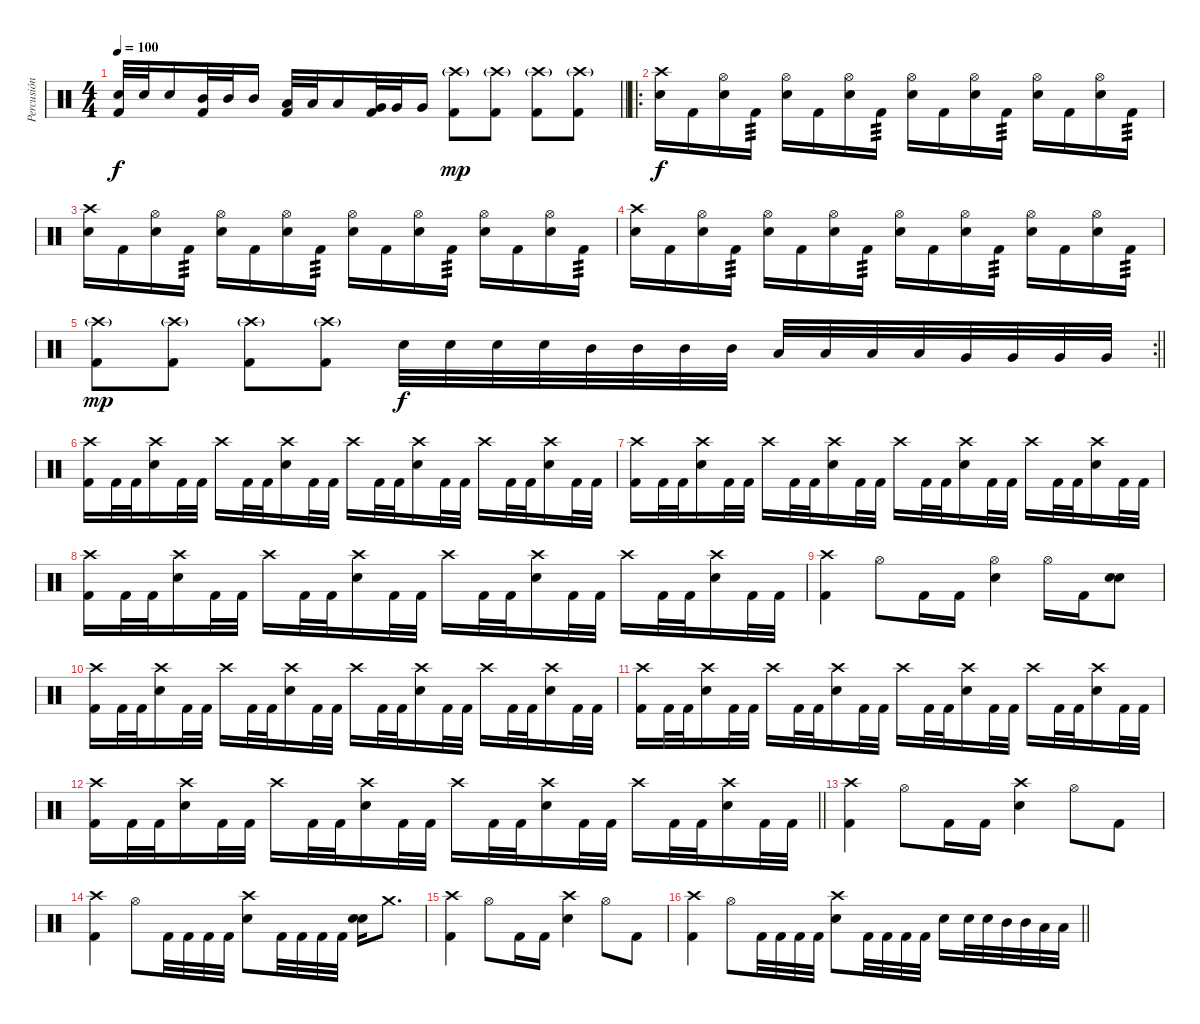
\track ("Percusión" "Percusión") {instrument percussion}
\staff
\articulation defaults
\ts (4 4)
\tempo 100
\clef neutral
\barLineRight lightlight
\ks c
("Kick (hit) 2" "Snare (hit) 2").32{dy f} "Snare (hit) 2".32 "Snare (hit) 2".16 ("Kick (hit) 2" "Mid Tom (hit)").32 "Mid Tom (hit)".32 "Mid Tom (hit)".16 ("Kick (hit) 2" "Low Tom (hit)").32 "Low Tom (hit)".32 "Low Tom (hit)".16 ("Kick (hit) 2" "Very Low Tom (hit)").32 "Very Low Tom (hit)".32 "Very Low Tom (hit)".16 ("Kick (hit) 2" "Crash high (hit)"{g}).8{dy mp} ("Kick (hit) 2" "Crash high (hit)"{g}).8 ("Kick (hit) 2" "Crash high (hit)"{g}).8 ("Kick (hit) 2" "Crash high (hit)"{g}).8 |
\ro
\section ("" "")
("Crash high (hit)" "Electric Snare (hit)").16{dy f} "Kick (hit) 2".16 ("Hi-Hat (open)" "Electric Snare (hit)").16 "Kick (hit) 2".16{tp 3} ("Hi-Hat (open)" "Electric Snare (hit)").16 "Kick (hit) 2".16 ("Hi-Hat (open)" "Electric Snare (hit)").16 "Kick (hit) 2".16{tp 3} ("Hi-Hat (open)" "Electric Snare (hit)").16 "Kick (hit) 2".16 ("Hi-Hat (open)" "Electric Snare (hit)").16 "Kick (hit) 2".16{tp 3} ("Hi-Hat (open)" "Electric Snare (hit)").16 "Kick (hit) 2".16 ("Hi-Hat (open)" "Electric Snare (hit)").16 "Kick (hit) 2".16{tp 3} |
("Crash high (hit)" "Electric Snare (hit)").16 "Kick (hit) 2".16 ("Hi-Hat (open)" "Electric Snare (hit)").16 "Kick (hit) 2".16{tp 3} ("Hi-Hat (open)" "Electric Snare (hit)").16 "Kick (hit) 2".16 ("Hi-Hat (open)" "Electric Snare (hit)").16 "Kick (hit) 2".16{tp 3} ("Hi-Hat (open)" "Electric Snare (hit)").16 "Kick (hit) 2".16 ("Hi-Hat (open)" "Electric Snare (hit)").16 "Kick (hit) 2".16{tp 3} ("Hi-Hat (open)" "Electric Snare (hit)").16 "Kick (hit) 2".16 ("Hi-Hat (open)" "Electric Snare (hit)").16 "Kick (hit) 2".16{tp 3} |
("Crash high (hit)" "Electric Snare (hit)").16 "Kick (hit) 2".16 ("Hi-Hat (open)" "Electric Snare (hit)").16 "Kick (hit) 2".16{tp 3} ("Hi-Hat (open)" "Electric Snare (hit)").16 "Kick (hit) 2".16 ("Hi-Hat (open)" "Electric Snare (hit)").16 "Kick (hit) 2".16{tp 3} ("Hi-Hat (open)" "Electric Snare (hit)").16 "Kick (hit) 2".16 ("Hi-Hat (open)" "Electric Snare (hit)").16 "Kick (hit) 2".16{tp 3} ("Hi-Hat (open)" "Electric Snare (hit)").16 "Kick (hit) 2".16 ("Hi-Hat (open)" "Electric Snare (hit)").16 "Kick (hit) 2".16{tp 3} |
\rc 2
\barLineRight lightlight
("Kick (hit) 2" "Crash high (hit)"{g}).8{dy mp} ("Kick (hit) 2" "Crash high (hit)"{g}).8 ("Kick (hit) 2" "Crash high (hit)"{g}).8 ("Kick (hit) 2" "Crash high (hit)"{g}).8 "Snare (hit) 2".32{dy f} "Snare (hit) 2".32 "Snare (hit) 2".32 "Snare (hit) 2".32 "Mid Tom (hit)".32 "Mid Tom (hit)".32 "Mid Tom (hit)".32 "Mid Tom (hit)".32 "Low Tom (hit)".32 "Low Tom (hit)".32 "Low Tom (hit)".32 "Low Tom (hit)".32 "Very Low Tom (hit)".32 "Very Low Tom (hit)".32 "Very Low Tom (hit)".32 "Very Low Tom (hit)".32 |
\section ("" "")
("Kick (hit) 2" "Crash high (hit)").16 "Kick (hit) 2".32 "Kick (hit) 2".32 ("Crash high (hit)" "Electric Snare (hit)").16 "Kick (hit) 2".32 "Kick (hit) 2".32 "Crash high (hit)".16 "Kick (hit) 2".32 "Kick (hit) 2".32 ("Crash high (hit)" "Electric Snare (hit)").16 "Kick (hit) 2".32 "Kick (hit) 2".32 "Crash high (hit)".16 "Kick (hit) 2".32 "Kick (hit) 2".32 ("Crash high (hit)" "Electric Snare (hit)").16 "Kick (hit) 2".32 "Kick (hit) 2".32 "Crash high (hit)".16 "Kick (hit) 2".32 "Kick (hit) 2".32 ("Crash high (hit)" "Electric Snare (hit)").16 "Kick (hit) 2".32 "Kick (hit) 2".32 |
("Kick (hit) 2" "Crash high (hit)").16 "Kick (hit) 2".32 "Kick (hit) 2".32 ("Crash high (hit)" "Electric Snare (hit)").16 "Kick (hit) 2".32 "Kick (hit) 2".32 "Crash high (hit)".16 "Kick (hit) 2".32 "Kick (hit) 2".32 ("Crash high (hit)" "Electric Snare (hit)").16 "Kick (hit) 2".32 "Kick (hit) 2".32 "Crash high (hit)".16 "Kick (hit) 2".32 "Kick (hit) 2".32 ("Crash high (hit)" "Electric Snare (hit)").16 "Kick (hit) 2".32 "Kick (hit) 2".32 "Crash high (hit)".16 "Kick (hit) 2".32 "Kick (hit) 2".32 ("Crash high (hit)" "Electric Snare (hit)").16 "Kick (hit) 2".32 "Kick (hit) 2".32 |
("Kick (hit) 2" "Crash high (hit)").16 "Kick (hit) 2".32 "Kick (hit) 2".32 ("Crash high (hit)" "Electric Snare (hit)").16 "Kick (hit) 2".32 "Kick (hit) 2".32 "Crash high (hit)".16 "Kick (hit) 2".32 "Kick (hit) 2".32 ("Crash high (hit)" "Electric Snare (hit)").16 "Kick (hit) 2".32 "Kick (hit) 2".32 "Crash high (hit)".16 "Kick (hit) 2".32 "Kick (hit) 2".32 ("Crash high (hit)" "Electric Snare (hit)").16 "Kick (hit) 2".32 "Kick (hit) 2".32 "Crash high (hit)".16 "Kick (hit) 2".32 "Kick (hit) 2".32 ("Crash high (hit)" "Electric Snare (hit)").16 "Kick (hit) 2".32 "Kick (hit) 2".32 |
("Kick (hit) 2" "Crash high (hit)").4 "Hi-Hat (open)".8 "Kick (hit) 2".16 "Kick (hit) 2".16 ("Hi-Hat (open)" "Electric Snare (hit)").4 "Hi-Hat (open)".16 "Kick (hit) 2".16 ("Electric Snare (hit)" "Snare (hit) 2").8 |
("Kick (hit) 2" "Crash high (hit)").16 "Kick (hit) 2".32 "Kick (hit) 2".32 ("Crash high (hit)" "Electric Snare (hit)").16 "Kick (hit) 2".32 "Kick (hit) 2".32 "Crash high (hit)".16 "Kick (hit) 2".32 "Kick (hit) 2".32 ("Crash high (hit)" "Electric Snare (hit)").16 "Kick (hit) 2".32 "Kick (hit) 2".32 "Crash high (hit)".16 "Kick (hit) 2".32 "Kick (hit) 2".32 ("Crash high (hit)" "Electric Snare (hit)").16 "Kick (hit) 2".32 "Kick (hit) 2".32 "Crash high (hit)".16 "Kick (hit) 2".32 "Kick (hit) 2".32 ("Crash high (hit)" "Electric Snare (hit)").16 "Kick (hit) 2".32 "Kick (hit) 2".32 |
("Kick (hit) 2" "Crash high (hit)").16 "Kick (hit) 2".32 "Kick (hit) 2".32 ("Crash high (hit)" "Electric Snare (hit)").16 "Kick (hit) 2".32 "Kick (hit) 2".32 "Crash high (hit)".16 "Kick (hit) 2".32 "Kick (hit) 2".32 ("Crash high (hit)" "Electric Snare (hit)").16 "Kick (hit) 2".32 "Kick (hit) 2".32 "Crash high (hit)".16 "Kick (hit) 2".32 "Kick (hit) 2".32 ("Crash high (hit)" "Electric Snare (hit)").16 "Kick (hit) 2".32 "Kick (hit) 2".32 "Crash high (hit)".16 "Kick (hit) 2".32 "Kick (hit) 2".32 ("Crash high (hit)" "Electric Snare (hit)").16 "Kick (hit) 2".32 "Kick (hit) 2".32 |
\barLineRight lightlight
("Kick (hit) 2" "Crash high (hit)").16 "Kick (hit) 2".32 "Kick (hit) 2".32 ("Crash high (hit)" "Electric Snare (hit)").16 "Kick (hit) 2".32 "Kick (hit) 2".32 "Crash high (hit)".16 "Kick (hit) 2".32 "Kick (hit) 2".32 ("Crash high (hit)" "Electric Snare (hit)").16 "Kick (hit) 2".32 "Kick (hit) 2".32 "Crash high (hit)".16 "Kick (hit) 2".32 "Kick (hit) 2".32 ("Crash high (hit)" "Electric Snare (hit)").16 "Kick (hit) 2".32 "Kick (hit) 2".32 "Crash high (hit)".16 "Kick (hit) 2".32 "Kick (hit) 2".32 ("Crash high (hit)" "Electric Snare (hit)").16 "Kick (hit) 2".32 "Kick (hit) 2".32 |
\section ("" "")
("Kick (hit) 2" "Crash high (hit)").4 "Hi-Hat (open)".8 "Kick (hit) 2".16 "Kick (hit) 2".16 ("Crash high (hit)" "Electric Snare (hit)").4 "Hi-Hat (open)".8 "Kick (hit) 2".8 |
("Kick (hit) 2" "Crash high (hit)").4 "Hi-Hat (open)".8 "Kick (hit) 2".32 "Kick (hit) 2".32 "Kick (hit) 2".32 "Kick (hit) 2".32 ("Crash high (hit)" "Electric Snare (hit)").8 "Kick (hit) 2".32 "Kick (hit) 2".32 "Kick (hit) 2".32 "Kick (hit) 2".32 ("Electric Snare (hit)" "Snare (hit) 2").16 "Crash medium (hit)".8{d} |
("Kick (hit) 2" "Crash high (hit)").4 "Hi-Hat (open)".8 "Kick (hit) 2".16 "Kick (hit) 2".16 ("Crash high (hit)" "Electric Snare (hit)").4 "Hi-Hat (open)".8 "Kick (hit) 2".8 |
\barLineRight lightlight
("Kick (hit) 2" "Crash high (hit)").4 "Hi-Hat (open)".8 "Kick (hit) 2".32 "Kick (hit) 2".32 "Kick (hit) 2".32 "Kick (hit) 2".32 ("Crash high (hit)" "Electric Snare (hit)").8 "Kick (hit) 2".32 "Kick (hit) 2".32 "Kick (hit) 2".32 "Kick (hit) 2".32 "Snare (hit) 2".16 "Electric Snare (hit)".32 "Electric Snare (hit)".32 "Mid Tom (hit)".32 "Mid Tom (hit)".32 "Low Tom (hit)".32 "Low Tom (hit)".32
